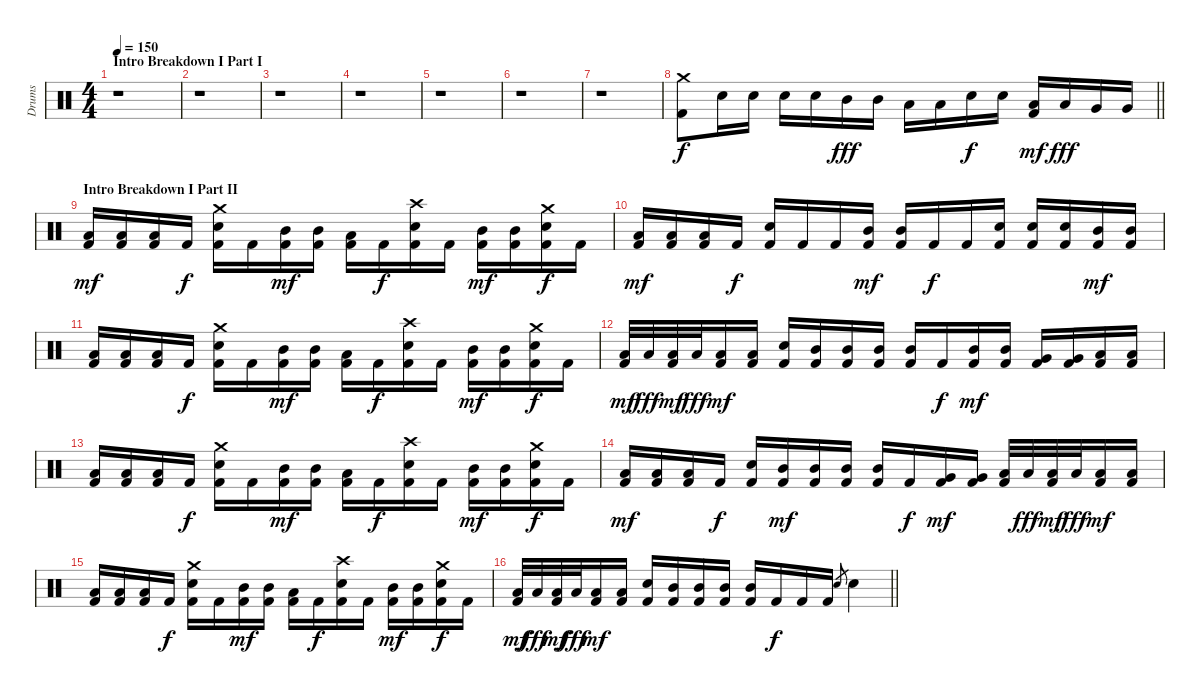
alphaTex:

\track ("Drums" "Drums") {instrument percussion}
\staff {score}
\articulation defaults
\ts (4 4)
\section ("" "Intro Breakdown I Part I")
\tempo 150
\clef neutral
\ks c
r.1{dy fff} |
r.1 |
r.1 |
r.1 |
r.1 |
r.1 |
r.1 |
\barLineRight lightlight
("Crash medium (hit)" "Kick (hit) 2").8{dy f} "Electric Snare (hit)".16 "Electric Snare (hit)".16 "Electric Snare (hit)".16 "Electric Snare (hit)".16 "Mid Tom (hit)".16{dy fff} "Mid Tom (hit)".16 "Low Tom (hit)".16 "Low Tom (hit)".16 "Electric Snare (hit)".16{dy f} "Electric Snare (hit)".16 ("Low Tom (hit)" "Kick (hit) 2").16{dy mf} "Low Tom (hit)".16{dy fff} "Very Low Tom (hit)".16 "Very Low Tom (hit)".16 |
\section ("" "Intro Breakdown I Part II")
("Low Floor Tom (hit)" "Kick (hit) 2").16{dy mf} ("Low Floor Tom (hit)" "Kick (hit) 2").16 ("Low Floor Tom (hit)" "Kick (hit) 2").16 "Kick (hit) 2".16{dy f} ("Crash medium (hit)" "Electric Snare (hit)" "Kick (hit) 2").16 "Kick (hit) 2".16 ("Mid Tom (hit)" "Kick (hit) 2").16{dy mf} ("Mid Tom (hit)" "Kick (hit) 2").16 ("Low Tom (hit)" "Kick (hit) 2").16 "Kick (hit) 2".16{dy f} ("Crash high (hit)" "Electric Snare (hit)" "Kick (hit) 2").16 "Kick (hit) 2".16 ("Mid Tom (hit)" "Kick (hit) 2").16{dy mf} ("Mid Tom (hit)" "Kick (hit) 2").16 ("Crash medium (hit)" "Electric Snare (hit)" "Kick (hit) 2").16{dy f} "Kick (hit) 2".16 |
("Low Floor Tom (hit)" "Kick (hit) 2").16{dy mf} ("Low Floor Tom (hit)" "Kick (hit) 2").16 ("Low Floor Tom (hit)" "Kick (hit) 2").16 "Kick (hit) 2".16{dy f} ("Electric Snare (hit)" "Kick (hit) 2").16 "Kick (hit) 2".16 "Kick (hit) 2".16 ("Mid Tom (hit)" "Kick (hit) 2").16{dy mf} ("Mid Tom (hit)" "Kick (hit) 2").16 "Kick (hit) 2".16{dy f} "Kick (hit) 2".16 ("Electric Snare (hit)" "Kick (hit) 2").16 ("Electric Snare (hit)" "Kick (hit) 2").16 ("Electric Snare (hit)" "Kick (hit) 2").16 ("Mid Tom (hit)" "Kick (hit) 2").16{dy mf} ("Mid Tom (hit)" "Kick (hit) 2").16 |
("Low Floor Tom (hit)" "Kick (hit) 2").16 ("Low Floor Tom (hit)" "Kick (hit) 2").16 ("Low Floor Tom (hit)" "Kick (hit) 2").16 "Kick (hit) 2".16{dy f} ("Crash medium (hit)" "Electric Snare (hit)" "Kick (hit) 2").16 "Kick (hit) 2".16 ("Mid Tom (hit)" "Kick (hit) 2").16{dy mf} ("Mid Tom (hit)" "Kick (hit) 2").16 ("Low Tom (hit)" "Kick (hit) 2").16 "Kick (hit) 2".16{dy f} ("Crash high (hit)" "Electric Snare (hit)" "Kick (hit) 2").16 "Kick (hit) 2".16 ("Mid Tom (hit)" "Kick (hit) 2").16{dy mf} ("Mid Tom (hit)" "Kick (hit) 2").16 ("Crash medium (hit)" "Electric Snare (hit)" "Kick (hit) 2").16{dy f} "Kick (hit) 2".16 |
("Low Floor Tom (hit)" "Kick (hit) 2").32{dy mf} "Low Floor Tom (hit)".32{dy fff} ("Low Floor Tom (hit)" "Kick (hit) 2").32{dy mf} "Low Floor Tom (hit)".32{dy fff} ("Low Floor Tom (hit)" "Kick (hit) 2").16{dy mf} ("Low Floor Tom (hit)" "Kick (hit) 2").16 ("Electric Snare (hit)" "Kick (hit) 2").16 ("Mid Tom (hit)" "Kick (hit) 2").16 ("Mid Tom (hit)" "Kick (hit) 2").16 ("Mid Tom (hit)" "Kick (hit) 2").16 ("Mid Tom (hit)" "Kick (hit) 2").16 "Kick (hit) 2".16{dy f} ("Mid Tom (hit)" "Kick (hit) 2").16{dy mf} ("Mid Tom (hit)" "Kick (hit) 2").16 ("Very Low Tom (hit)" "Kick (hit) 2").16 ("Very Low Tom (hit)" "Kick (hit) 2").16 ("Low Floor Tom (hit)" "Kick (hit) 2").16 ("Low Floor Tom (hit)" "Kick (hit) 2").16 |
("Low Floor Tom (hit)" "Kick (hit) 2").16 ("Low Floor Tom (hit)" "Kick (hit) 2").16 ("Low Floor Tom (hit)" "Kick (hit) 2").16 "Kick (hit) 2".16{dy f} ("Crash medium (hit)" "Electric Snare (hit)" "Kick (hit) 2").16 "Kick (hit) 2".16 ("Mid Tom (hit)" "Kick (hit) 2").16{dy mf} ("Mid Tom (hit)" "Kick (hit) 2").16 ("Low Tom (hit)" "Kick (hit) 2").16 "Kick (hit) 2".16{dy f} ("Crash high (hit)" "Electric Snare (hit)" "Kick (hit) 2").16 "Kick (hit) 2".16 ("Mid Tom (hit)" "Kick (hit) 2").16{dy mf} ("Mid Tom (hit)" "Kick (hit) 2").16 ("Crash medium (hit)" "Electric Snare (hit)" "Kick (hit) 2").16{dy f} "Kick (hit) 2".16 |
("Low Floor Tom (hit)" "Kick (hit) 2").16{dy mf} ("Low Floor Tom (hit)" "Kick (hit) 2").16 ("Low Floor Tom (hit)" "Kick (hit) 2").16 "Kick (hit) 2".16{dy f} ("Electric Snare (hit)" "Kick (hit) 2").16 ("Mid Tom (hit)" "Kick (hit) 2").16{dy mf} ("Mid Tom (hit)" "Kick (hit) 2").16 ("Mid Tom (hit)" "Kick (hit) 2").16 ("Mid Tom (hit)" "Kick (hit) 2").16 "Kick (hit) 2".16{dy f} ("Very Low Tom (hit)" "Kick (hit) 2").16{dy mf} ("Very Low Tom (hit)" "Kick (hit) 2").16 ("Low Floor Tom (hit)" "Kick (hit) 2").32 "Low Floor Tom (hit)".32{dy fff} ("Low Floor Tom (hit)" "Kick (hit) 2").32{dy mf} "Low Floor Tom (hit)".32{dy fff} ("Low Floor Tom (hit)" "Kick (hit) 2").16{dy mf} ("Low Floor Tom (hit)" "Kick (hit) 2").16 |
("Low Floor Tom (hit)" "Kick (hit) 2").16 ("Low Floor Tom (hit)" "Kick (hit) 2").16 ("Low Floor Tom (hit)" "Kick (hit) 2").16 "Kick (hit) 2".16{dy f} ("Crash medium (hit)" "Electric Snare (hit)" "Kick (hit) 2").16 "Kick (hit) 2".16 ("Mid Tom (hit)" "Kick (hit) 2").16{dy mf} ("Mid Tom (hit)" "Kick (hit) 2").16 ("Low Tom (hit)" "Kick (hit) 2").16 "Kick (hit) 2".16{dy f} ("Crash high (hit)" "Electric Snare (hit)" "Kick (hit) 2").16 "Kick (hit) 2".16 ("Mid Tom (hit)" "Kick (hit) 2").16{dy mf} ("Mid Tom (hit)" "Kick (hit) 2").16 ("Crash medium (hit)" "Electric Snare (hit)" "Kick (hit) 2").16{dy f} "Kick (hit) 2".16 |
\barLineRight lightlight
("Low Floor Tom (hit)" "Kick (hit) 2").32{dy mf} "Low Floor Tom (hit)".32{dy fff} ("Low Floor Tom (hit)" "Kick (hit) 2").32{dy mf} "Low Floor Tom (hit)".32{dy fff} ("Low Floor Tom (hit)" "Kick (hit) 2").16{dy mf} ("Low Floor Tom (hit)" "Kick (hit) 2").16 ("Electric Snare (hit)" "Kick (hit) 2").16 ("Mid Tom (hit)" "Kick (hit) 2").16 ("Mid Tom (hit)" "Kick (hit) 2").16 ("Mid Tom (hit)" "Kick (hit) 2").16 ("Mid Tom (hit)" "Kick (hit) 2").16 "Kick (hit) 2".16{dy f} "Kick (hit) 2".16 "Kick (hit) 2".16 "Electric Snare (hit)".8{gr} "Electric Snare (hit)".4
